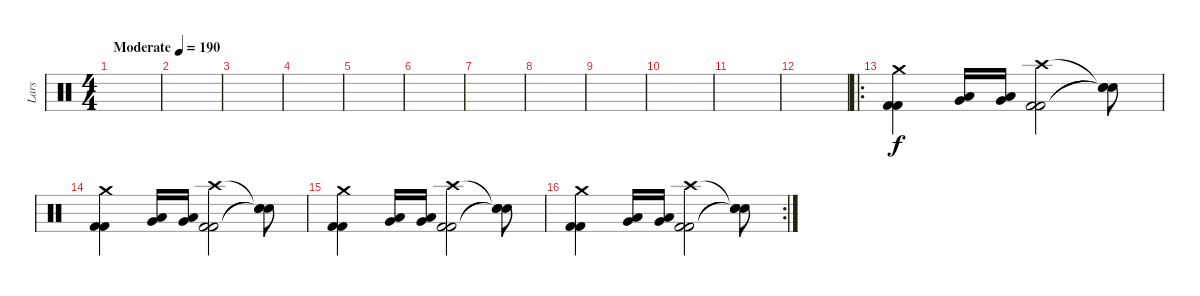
\track ("Lars" "Lars") {instrument percussion}
\staff {score}
\articulation defaults
\ts (4 4)
\tempo (190 "Moderate")
\tempo 70
\tempo (190 "Moderate")
\clef neutral
\ks c
|
|
|
|
|
|
|
|
|
|
|
|
\ro
("Crash medium (hit)" "Kick (hit) 2" "Kick (hit) 2").4 ("Low Tom (hit)" "Very Low Tom (hit)").16 ("Low Tom (hit)" "Very Low Tom (hit)").16 ("Crash high (hit)" "Kick (hit) 2" "Kick (hit) 2").2 ("Snare (hit)"{t} "Snare (hit)"{t} "Snare (hit)"{t}).8 |
("Crash medium (hit)" "Kick (hit) 2" "Kick (hit) 2").4 ("Low Tom (hit)" "Very Low Tom (hit)").16 ("Low Tom (hit)" "Very Low Tom (hit)").16 ("Crash high (hit)" "Kick (hit) 2" "Kick (hit) 2").2 ("Snare (hit)"{t} "Snare (hit)"{t} "Snare (hit)"{t}).8 |
("Crash medium (hit)" "Kick (hit) 2" "Kick (hit) 2").4 ("Low Tom (hit)" "Very Low Tom (hit)").16 ("Low Tom (hit)" "Very Low Tom (hit)").16 ("Crash high (hit)" "Kick (hit) 2" "Kick (hit) 2").2 ("Snare (hit)"{t} "Snare (hit)"{t} "Snare (hit)"{t}).8 |
\rc 2
("Crash medium (hit)" "Kick (hit) 2" "Kick (hit) 2").4 ("Low Tom (hit)" "Very Low Tom (hit)").16 ("Low Tom (hit)" "Very Low Tom (hit)").16 ("Crash high (hit)" "Kick (hit) 2" "Kick (hit) 2").2 ("Snare (hit)"{t} "Snare (hit)"{t} "Snare (hit)"{t}).8
